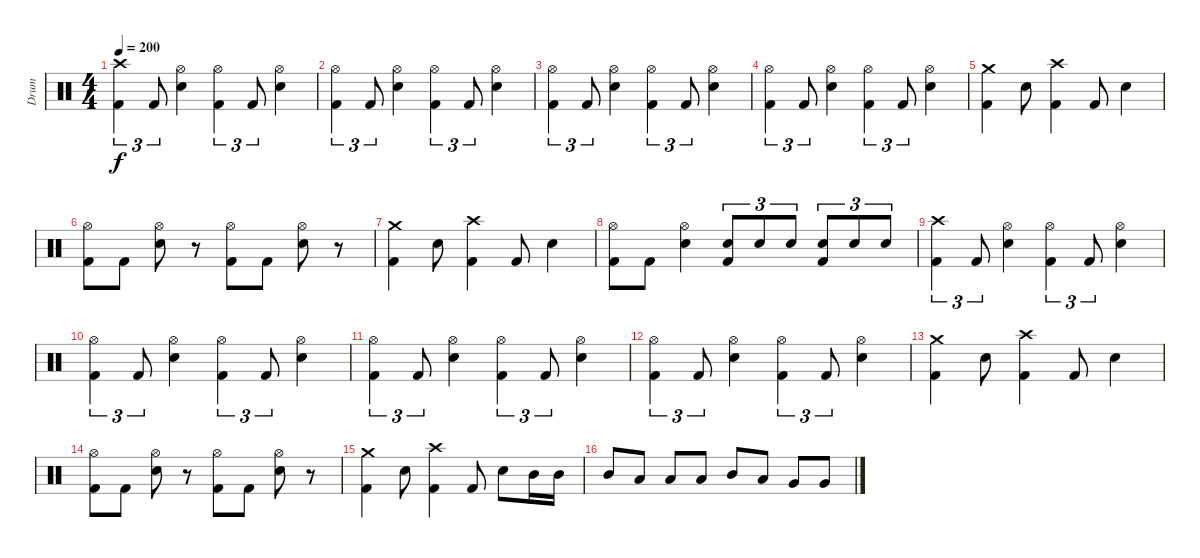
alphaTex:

\track ("Drum" "Drum") {instrument percussion}
\staff {score}
\articulation defaults
\ts (4 4)
\tempo 200
\clef neutral
\ks c
("Crash high (hit)" "Kick (hit) 2").4{tu (3 2) dy f} "Kick (hit) 2".8{tu (3 2)} ("Hi-Hat (open)" "Electric Snare (hit)").4 ("Hi-Hat (open)" "Kick (hit) 2").4{tu (3 2)} "Kick (hit) 2".8{tu (3 2)} ("Hi-Hat (open)" "Electric Snare (hit)").4 |
("Hi-Hat (open)" "Kick (hit) 2").4{tu (3 2)} "Kick (hit) 2".8{tu (3 2)} ("Hi-Hat (open)" "Electric Snare (hit)").4 ("Hi-Hat (open)" "Kick (hit) 2").4{tu (3 2)} "Kick (hit) 2".8{tu (3 2)} ("Hi-Hat (open)" "Electric Snare (hit)").4 |
("Hi-Hat (open)" "Kick (hit) 2").4{tu (3 2)} "Kick (hit) 2".8{tu (3 2)} ("Hi-Hat (open)" "Electric Snare (hit)").4 ("Hi-Hat (open)" "Kick (hit) 2").4{tu (3 2)} "Kick (hit) 2".8{tu (3 2)} ("Hi-Hat (open)" "Electric Snare (hit)").4 |
("Hi-Hat (open)" "Kick (hit) 2").4{tu (3 2)} "Kick (hit) 2".8{tu (3 2)} ("Hi-Hat (open)" "Electric Snare (hit)").4 ("Hi-Hat (open)" "Kick (hit) 2").4{tu (3 2)} "Kick (hit) 2".8{tu (3 2)} ("Hi-Hat (open)" "Electric Snare (hit)").4 |
("Crash medium (hit)" "Kick (hit) 2").4 "Electric Snare (hit)".8 ("Crash high (hit)" "Kick (hit) 2").4 "Kick (hit) 2".8 "Electric Snare (hit)".4 |
("Hi-Hat (open)" "Kick (hit) 2").8 "Kick (hit) 2".8 ("Hi-Hat (open)" "Electric Snare (hit)").8 r.8 ("Hi-Hat (open)" "Kick (hit) 2").8 "Kick (hit) 2".8 ("Hi-Hat (open)" "Electric Snare (hit)").8 r.8 |
("Crash medium (hit)" "Kick (hit) 2").4 "Electric Snare (hit)".8 ("Crash high (hit)" "Kick (hit) 2").4 "Kick (hit) 2".8 "Electric Snare (hit)".4 |
("Hi-Hat (open)" "Kick (hit) 2").8 "Kick (hit) 2".8 ("Hi-Hat (open)" "Electric Snare (hit)").4 ("Electric Snare (hit)" "Kick (hit) 2").8{tu (3 2)} "Electric Snare (hit)".8{tu (3 2)} "Electric Snare (hit)".8{tu (3 2)} ("Electric Snare (hit)" "Kick (hit) 2").8{tu (3 2)} "Electric Snare (hit)".8{tu (3 2)} "Electric Snare (hit)".8{tu (3 2)} |
("Crash high (hit)" "Kick (hit) 2").4{tu (3 2)} "Kick (hit) 2".8{tu (3 2)} ("Hi-Hat (open)" "Electric Snare (hit)").4 ("Hi-Hat (open)" "Kick (hit) 2").4{tu (3 2)} "Kick (hit) 2".8{tu (3 2)} ("Hi-Hat (open)" "Electric Snare (hit)").4 |
("Hi-Hat (open)" "Kick (hit) 2").4{tu (3 2)} "Kick (hit) 2".8{tu (3 2)} ("Hi-Hat (open)" "Electric Snare (hit)").4 ("Hi-Hat (open)" "Kick (hit) 2").4{tu (3 2)} "Kick (hit) 2".8{tu (3 2)} ("Hi-Hat (open)" "Electric Snare (hit)").4 |
("Hi-Hat (open)" "Kick (hit) 2").4{tu (3 2)} "Kick (hit) 2".8{tu (3 2)} ("Hi-Hat (open)" "Electric Snare (hit)").4 ("Hi-Hat (open)" "Kick (hit) 2").4{tu (3 2)} "Kick (hit) 2".8{tu (3 2)} ("Hi-Hat (open)" "Electric Snare (hit)").4 |
("Hi-Hat (open)" "Kick (hit) 2").4{tu (3 2)} "Kick (hit) 2".8{tu (3 2)} ("Hi-Hat (open)" "Electric Snare (hit)").4 ("Hi-Hat (open)" "Kick (hit) 2").4{tu (3 2)} "Kick (hit) 2".8{tu (3 2)} ("Hi-Hat (open)" "Electric Snare (hit)").4 |
("Crash medium (hit)" "Kick (hit) 2").4 "Electric Snare (hit)".8 ("Crash high (hit)" "Kick (hit) 2").4 "Kick (hit) 2".8 "Electric Snare (hit)".4 |
("Hi-Hat (open)" "Kick (hit) 2").8 "Kick (hit) 2".8 ("Hi-Hat (open)" "Electric Snare (hit)").8 r.8 ("Hi-Hat (open)" "Kick (hit) 2").8 "Kick (hit) 2".8 ("Hi-Hat (open)" "Electric Snare (hit)").8 r.8 |
("Crash medium (hit)" "Kick (hit) 2").4 "Electric Snare (hit)".8 ("Crash high (hit)" "Kick (hit) 2").4 "Kick (hit) 2".8 "Electric Snare (hit)".8 "Mid Tom (hit)".16 "Mid Tom (hit)".16 |
"Mid Tom (hit)".8 "Low Tom (hit)".8 "Low Tom (hit)".8 "Low Tom (hit)".8 "Mid Tom (hit)".8 "Low Tom (hit)".8 "Very Low Tom (hit)".8 "Very Low Tom (hit)".8
